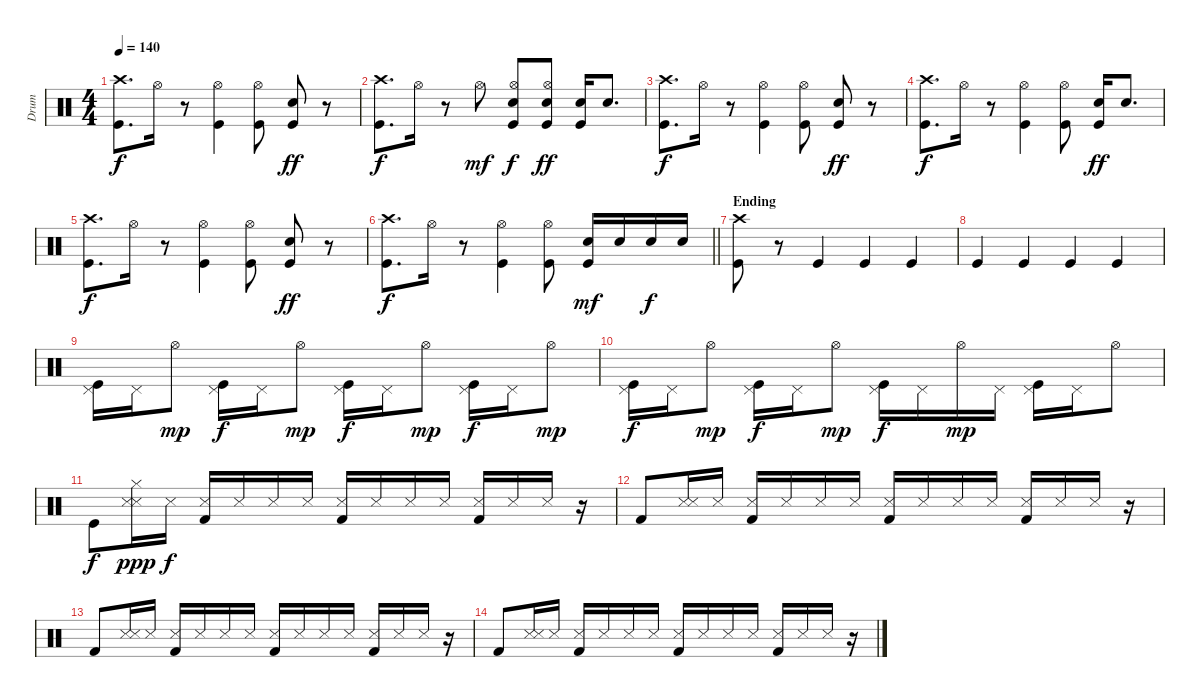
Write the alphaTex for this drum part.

\track ("Drum" "Drum") {instrument percussion}
\staff {score}
\articulation defaults
\ts (4 4)
\tempo 140
\clef neutral
\ks c
("Crash high (hit)" "Kick (hit)").8{d dy f} "Hi-Hat (open)".16 r.8 ("Hi-Hat (open)" "Kick (hit)").4 ("Hi-Hat (open)" "Kick (hit)").8 ("Electric Snare (hit)" "Kick (hit)").8{dy ff} r.8 |
("Crash high (hit)" "Kick (hit)").8{d dy f} "Hi-Hat (open)".16 r.8 "Hi-Hat (open)".8{dy mf} ("Hi-Hat (open)" "Electric Snare (hit)" "Kick (hit)").8{dy f} ("Hi-Hat (open)" "Electric Snare (hit)" "Kick (hit)").8{dy ff} ("Electric Snare (hit)" "Kick (hit)").16 "Electric Snare (hit)".8{d} |
("Crash high (hit)" "Kick (hit)").8{d dy f} "Hi-Hat (open)".16 r.8 ("Hi-Hat (open)" "Kick (hit)").4 ("Hi-Hat (open)" "Kick (hit)").8 ("Electric Snare (hit)" "Kick (hit)").8{dy ff} r.8 |
("Crash high (hit)" "Kick (hit)").8{d dy f} "Hi-Hat (open)".16 r.8 ("Hi-Hat (open)" "Kick (hit)").4 ("Hi-Hat (open)" "Kick (hit)").8 ("Electric Snare (hit)" "Kick (hit)").16{dy ff} "Electric Snare (hit)".8{d} |
("Crash high (hit)" "Kick (hit)").8{d dy f} "Hi-Hat (open)".16 r.8 ("Hi-Hat (open)" "Kick (hit)").4 ("Hi-Hat (open)" "Kick (hit)").8 ("Electric Snare (hit)" "Kick (hit)").8{dy ff} r.8 |
\barLineRight lightlight
("Crash high (hit)" "Kick (hit)").8{d dy f} "Hi-Hat (open)".16 r.8 ("Hi-Hat (open)" "Kick (hit)").4 ("Hi-Hat (open)" "Kick (hit)").8 ("Electric Snare (hit)" "Kick (hit)").16{dy mf} "Electric Snare (hit)".16 "Electric Snare (hit)".16{dy f} "Electric Snare (hit)".16 |
\section ("" "Ending")
("Crash high (hit)" "Kick (hit)").8 r.8 "Kick (hit)".4 "Kick (hit)".4 "Kick (hit)".4 |
"Kick (hit)".4 "Kick (hit)".4 "Kick (hit)".4 "Kick (hit)".4 |
("Pedal Hi-Hat (hit)" "Kick (hit)").16 "Pedal Hi-Hat (hit)".16 "Hi-Hat (open)".8{dy mp} ("Pedal Hi-Hat (hit)" "Kick (hit)").16{dy f} "Pedal Hi-Hat (hit)".16 "Hi-Hat (open)".8{dy mp} ("Pedal Hi-Hat (hit)" "Kick (hit)").16{dy f} "Pedal Hi-Hat (hit)".16 "Hi-Hat (open)".8{dy mp} ("Pedal Hi-Hat (hit)" "Kick (hit)").16{dy f} "Pedal Hi-Hat (hit)".16 "Hi-Hat (open)".8{dy mp} |
("Pedal Hi-Hat (hit)" "Kick (hit)").16{dy f} "Pedal Hi-Hat (hit)".16 "Hi-Hat (open)".8{dy mp} ("Pedal Hi-Hat (hit)" "Kick (hit)").16{dy f} "Pedal Hi-Hat (hit)".16 "Hi-Hat (open)".8{dy mp} ("Pedal Hi-Hat (hit)" "Kick (hit)").16{dy f} "Pedal Hi-Hat (hit)".16 "Hi-Hat (open)".16{dy mp} "Pedal Hi-Hat (hit)".16 ("Pedal Hi-Hat (hit)" "Kick (hit)").16 "Pedal Hi-Hat (hit)".16 "Hi-Hat (open)".8 |
"Kick (hit)".8{dy f} ("Hi-Hat (closed)" "Metronome (hit)" "Snare (side stick) 3").16{dy ppp} "Metronome (hit)".16{dy f} ("Metronome (hit)" "Kick (hit) 2").16 "Snare (side stick) 3".16 "Metronome (hit)".16 "Metronome (hit)".16 ("Snare (side stick) 3" "Kick (hit) 2").16 "Metronome (hit)".16 "Metronome (hit)".16 "Snare (side stick) 3".16 ("Metronome (hit)" "Kick (hit) 2").16 "Metronome (hit)".16 "Snare (side stick) 3".16 r.16 |
"Kick (hit) 2".8 ("Metronome (hit)" "Snare (side stick) 3").16 "Metronome (hit)".16 ("Metronome (hit)" "Kick (hit) 2").16 "Snare (side stick) 3".16 "Metronome (hit)".16 "Metronome (hit)".16 ("Snare (side stick) 3" "Kick (hit) 2").16 "Metronome (hit)".16 "Metronome (hit)".16 "Snare (side stick) 3".16 ("Metronome (hit)" "Kick (hit) 2").16 "Metronome (hit)".16 "Snare (side stick) 3".16 r.16 |
"Kick (hit) 2".8 ("Metronome (hit)" "Snare (side stick) 3").16 "Metronome (hit)".16 ("Metronome (hit)" "Kick (hit) 2").16 "Snare (side stick) 3".16 "Metronome (hit)".16 "Metronome (hit)".16 ("Snare (side stick) 3" "Kick (hit) 2").16 "Metronome (hit)".16 "Metronome (hit)".16 "Snare (side stick) 3".16 ("Metronome (hit)" "Kick (hit) 2").16 "Metronome (hit)".16 "Snare (side stick) 3".16 r.16 |
"Kick (hit) 2".8 ("Metronome (hit)" "Snare (side stick) 3").16 "Metronome (hit)".16 ("Metronome (hit)" "Kick (hit) 2").16 "Snare (side stick) 3".16 "Metronome (hit)".16 "Metronome (hit)".16 ("Snare (side stick) 3" "Kick (hit) 2").16 "Metronome (hit)".16 "Metronome (hit)".16 "Snare (side stick) 3".16 ("Metronome (hit)" "Kick (hit) 2").16 "Metronome (hit)".16 "Snare (side stick) 3".16 r.16
